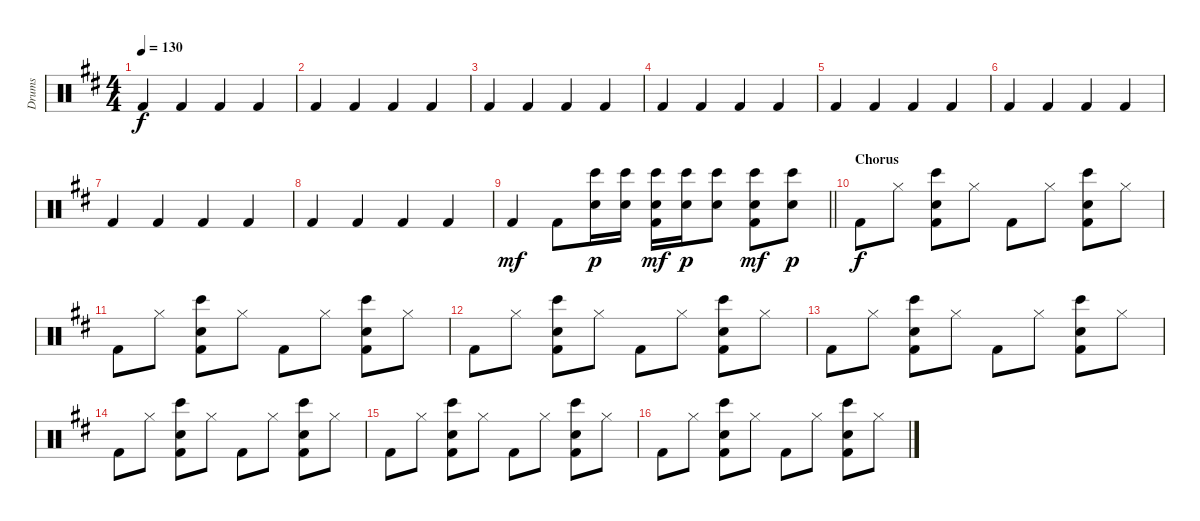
\track ("Drums" "Drums") {instrument percussion}
\staff {score}
\articulation defaults
\ts (4 4)
\tempo 130
\clef neutral
\ks d "Kick (hit) 2".4{dy f} "Kick (hit) 2".4 "Kick (hit) 2".4 "Kick (hit) 2".4
|
"Kick (hit) 2".4 "Kick (hit) 2".4 "Kick (hit) 2".4 "Kick (hit) 2".4 |
"Kick (hit) 2".4 "Kick (hit) 2".4 "Kick (hit) 2".4 "Kick (hit) 2".4 |
"Kick (hit) 2".4 "Kick (hit) 2".4 "Kick (hit) 2".4 "Kick (hit) 2".4 |
"Kick (hit) 2".4 "Kick (hit) 2".4 "Kick (hit) 2".4 "Kick (hit) 2".4 |
"Kick (hit) 2".4 "Kick (hit) 2".4 "Kick (hit) 2".4 "Kick (hit) 2".4 |
"Kick (hit) 2".4 "Kick (hit) 2".4 "Kick (hit) 2".4 "Kick (hit) 2".4 |
"Kick (hit) 2".4 "Kick (hit) 2".4 "Kick (hit) 2".4 "Kick (hit) 2".4 |
\barLineRight lightlight "Kick (hit) 2".4{dy mf} "Kick (hit) 2".8
("Electric Snare (hit)" "Bongo High (hit)").16{dy p} ("Electric Snare (hit)" "Bongo High (hit)").16 ("Electric Snare (hit)" "Bongo High (hit)" "Kick (hit) 2").16{dy mf} ("Electric Snare (hit)" "Bongo High (hit)").16{dy p} ("Electric Snare (hit)" "Bongo High (hit)").8 ("Electric Snare (hit)" "Bongo High (hit)" "Kick (hit) 2").8{dy mf} ("Electric Snare (hit)" "Bongo High (hit)").8{dy p} |
\section ("" "Chorus")
"Kick (hit) 2".8{dy f} "Hi-Hat (closed)".8 ("Electric Snare (hit)" "Bongo High (hit)" "Kick (hit) 2").8 "Hi-Hat (closed)".8 "Kick (hit) 2".8 "Hi-Hat (closed)".8 ("Electric Snare (hit)" "Bongo High (hit)" "Kick (hit) 2").8 "Hi-Hat (closed)".8 |
"Kick (hit) 2".8 "Hi-Hat (closed)".8 ("Electric Snare (hit)" "Bongo High (hit)" "Kick (hit) 2").8 "Hi-Hat (closed)".8 "Kick (hit) 2".8 "Hi-Hat (closed)".8 ("Electric Snare (hit)" "Bongo High (hit)" "Kick (hit) 2").8 "Hi-Hat (closed)".8 |
"Kick (hit) 2".8 "Hi-Hat (closed)".8 ("Electric Snare (hit)" "Bongo High (hit)" "Kick (hit) 2").8 "Hi-Hat (closed)".8 "Kick (hit) 2".8 "Hi-Hat (closed)".8 ("Electric Snare (hit)" "Bongo High (hit)" "Kick (hit) 2").8 "Hi-Hat (closed)".8 |
"Kick (hit) 2".8 "Hi-Hat (closed)".8 ("Electric Snare (hit)" "Bongo High (hit)" "Kick (hit) 2").8 "Hi-Hat (closed)".8 "Kick (hit) 2".8 "Hi-Hat (closed)".8 ("Electric Snare (hit)" "Bongo High (hit)" "Kick (hit) 2").8 "Hi-Hat (closed)".8 |
"Kick (hit) 2".8 "Hi-Hat (closed)".8 ("Electric Snare (hit)" "Bongo High (hit)" "Kick (hit) 2").8 "Hi-Hat (closed)".8 "Kick (hit) 2".8 "Hi-Hat (closed)".8 ("Electric Snare (hit)" "Bongo High (hit)" "Kick (hit) 2").8 "Hi-Hat (closed)".8 |
"Kick (hit) 2".8 "Hi-Hat (closed)".8 ("Electric Snare (hit)" "Bongo High (hit)" "Kick (hit) 2").8 "Hi-Hat (closed)".8 "Kick (hit) 2".8 "Hi-Hat (closed)".8 ("Electric Snare (hit)" "Bongo High (hit)" "Kick (hit) 2").8 "Hi-Hat (closed)".8 |
"Kick (hit) 2".8 "Hi-Hat (closed)".8 ("Electric Snare (hit)" "Bongo High (hit)" "Kick (hit) 2").8 "Hi-Hat (closed)".8 "Kick (hit) 2".8 "Hi-Hat (closed)".8 ("Electric Snare (hit)" "Bongo High (hit)" "Kick (hit) 2").8 "Hi-Hat (closed)".8
